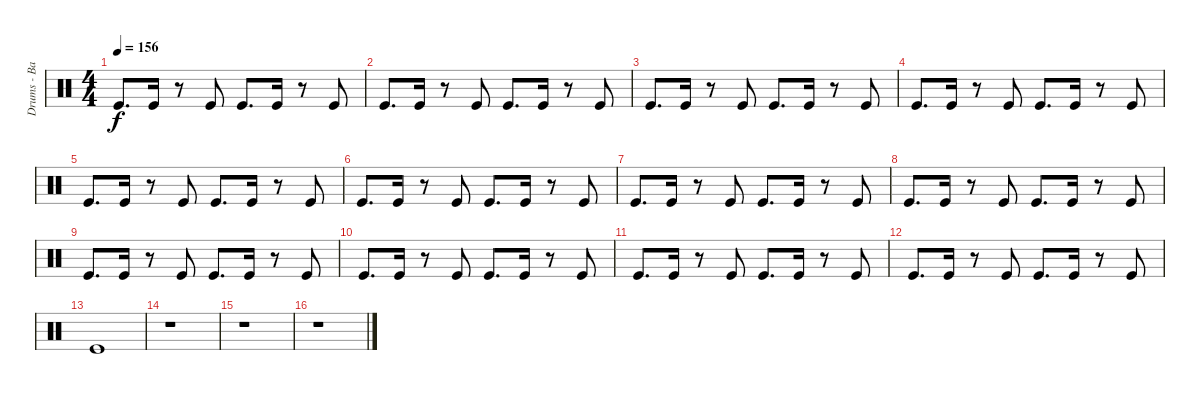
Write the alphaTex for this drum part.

\track ("Drums - Bass Drums" "Drums - Ba") {instrument percussion}
\staff {score}
\articulation defaults
\ts (4 4)
\tempo 156
\clef neutral
\ks c "Kick (hit)".8{d dy f} "Kick (hit)".16
r.8 "Kick (hit)".8 "Kick (hit)".8{d} "Kick (hit)".16 r.8 "Kick (hit)".8 |
"Kick (hit)".8{d} "Kick (hit)".16 r.8 "Kick (hit)".8 "Kick (hit)".8{d} "Kick (hit)".16 r.8 "Kick (hit)".8 |
"Kick (hit)".8{d} "Kick (hit)".16 r.8 "Kick (hit)".8 "Kick (hit)".8{d} "Kick (hit)".16 r.8 "Kick (hit)".8 |
"Kick (hit)".8{d} "Kick (hit)".16 r.8 "Kick (hit)".8 "Kick (hit)".8{d} "Kick (hit)".16 r.8 "Kick (hit)".8 |
"Kick (hit)".8{d} "Kick (hit)".16 r.8 "Kick (hit)".8 "Kick (hit)".8{d} "Kick (hit)".16 r.8 "Kick (hit)".8 |
"Kick (hit)".8{d} "Kick (hit)".16 r.8 "Kick (hit)".8 "Kick (hit)".8{d} "Kick (hit)".16 r.8 "Kick (hit)".8 |
"Kick (hit)".8{d} "Kick (hit)".16 r.8 "Kick (hit)".8 "Kick (hit)".8{d} "Kick (hit)".16 r.8 "Kick (hit)".8 |
"Kick (hit)".8{d} "Kick (hit)".16 r.8 "Kick (hit)".8 "Kick (hit)".8{d} "Kick (hit)".16 r.8 "Kick (hit)".8 |
"Kick (hit)".8{d} "Kick (hit)".16 r.8 "Kick (hit)".8 "Kick (hit)".8{d} "Kick (hit)".16 r.8 "Kick (hit)".8 |
"Kick (hit)".8{d} "Kick (hit)".16 r.8 "Kick (hit)".8 "Kick (hit)".8{d} "Kick (hit)".16 r.8 "Kick (hit)".8 |
"Kick (hit)".8{d} "Kick (hit)".16 r.8 "Kick (hit)".8 "Kick (hit)".8{d} "Kick (hit)".16 r.8 "Kick (hit)".8 |
"Kick (hit)".8{d} "Kick (hit)".16 r.8 "Kick (hit)".8 "Kick (hit)".8{d} "Kick (hit)".16 r.8 "Kick (hit)".8 |
"Kick (hit)".1 |
r.1 |
r.1 |
r.1
